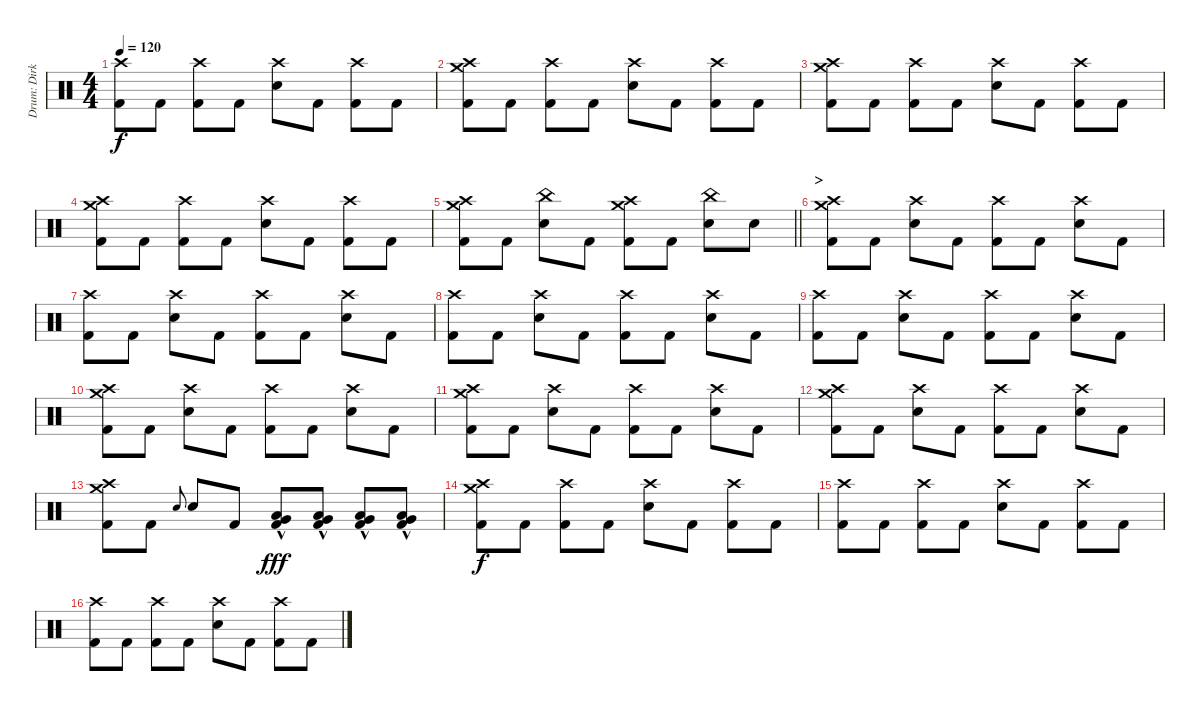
\track ("Drum: Dirk" "Drum: Dirk") {instrument percussion}
\staff {score}
\articulation defaults
\ts (4 4)
\tempo 120
\clef neutral
\ks c
("Crash high (hit)" "Kick (hit) 2").8{dy f} "Kick (hit) 2".8 ("Crash high (hit)" "Kick (hit) 2").8 "Kick (hit) 2".8 ("Crash high (hit)" "Electric Snare (hit)").8 "Kick (hit) 2".8 ("Crash high (hit)" "Kick (hit) 2").8 "Kick (hit) 2".8 |
("Crash high (hit)" "Crash medium (hit)" "Kick (hit) 2").8 "Kick (hit) 2".8 ("Crash high (hit)" "Kick (hit) 2").8 "Kick (hit) 2".8 ("Crash high (hit)" "Electric Snare (hit)").8 "Kick (hit) 2".8 ("Crash high (hit)" "Kick (hit) 2").8 "Kick (hit) 2".8 |
("Crash high (hit)" "Crash medium (hit)" "Kick (hit) 2").8 "Kick (hit) 2".8 ("Crash high (hit)" "Kick (hit) 2").8 "Kick (hit) 2".8 ("Crash high (hit)" "Electric Snare (hit)").8 "Kick (hit) 2".8 ("Crash high (hit)" "Kick (hit) 2").8 "Kick (hit) 2".8 |
("Crash high (hit)" "Crash medium (hit)" "Kick (hit) 2").8 "Kick (hit) 2".8 ("Crash high (hit)" "Kick (hit) 2").8 "Kick (hit) 2".8 ("Crash high (hit)" "Electric Snare (hit)").8 "Kick (hit) 2".8 ("Crash high (hit)" "Kick (hit) 2").8 "Kick (hit) 2".8 |
\barLineRight lightlight
("Crash high (hit)" "Crash medium (hit)" "Kick (hit) 2").8 "Kick (hit) 2".8 ("China (hit)" "Electric Snare (hit)").8 "Kick (hit) 2".8 ("Crash high (hit)" "Crash medium (hit)" "Kick (hit) 2").8 "Kick (hit) 2".8 ("China (hit)" "Electric Snare (hit)").8 "Electric Snare (hit)".8 |
\section ("" ">")
("Crash high (hit)" "Crash medium (hit)" "Kick (hit) 2").8 "Kick (hit) 2".8 ("Crash high (hit)" "Electric Snare (hit)").8 "Kick (hit) 2".8 ("Crash high (hit)" "Kick (hit) 2").8 "Kick (hit) 2".8 ("Crash high (hit)" "Electric Snare (hit)").8 "Kick (hit) 2".8 |
("Crash high (hit)" "Kick (hit) 2").8 "Kick (hit) 2".8 ("Crash high (hit)" "Electric Snare (hit)").8 "Kick (hit) 2".8 ("Crash high (hit)" "Kick (hit) 2").8 "Kick (hit) 2".8 ("Crash high (hit)" "Electric Snare (hit)").8 "Kick (hit) 2".8 |
("Crash high (hit)" "Kick (hit) 2").8 "Kick (hit) 2".8 ("Crash high (hit)" "Electric Snare (hit)").8 "Kick (hit) 2".8 ("Crash high (hit)" "Kick (hit) 2").8 "Kick (hit) 2".8 ("Crash high (hit)" "Electric Snare (hit)").8 "Kick (hit) 2".8 |
("Crash high (hit)" "Kick (hit) 2").8 "Kick (hit) 2".8 ("Crash high (hit)" "Electric Snare (hit)").8 "Kick (hit) 2".8 ("Crash high (hit)" "Kick (hit) 2").8 "Kick (hit) 2".8 ("Crash high (hit)" "Electric Snare (hit)").8 "Kick (hit) 2".8 |
("Crash high (hit)" "Crash medium (hit)" "Kick (hit) 2").8 "Kick (hit) 2".8 ("Crash high (hit)" "Electric Snare (hit)").8 "Kick (hit) 2".8 ("Crash high (hit)" "Kick (hit) 2").8 "Kick (hit) 2".8 ("Crash high (hit)" "Electric Snare (hit)").8 "Kick (hit) 2".8 |
("Crash high (hit)" "Crash medium (hit)" "Kick (hit) 2").8 "Kick (hit) 2".8 ("Crash high (hit)" "Electric Snare (hit)").8 "Kick (hit) 2".8 ("Crash high (hit)" "Kick (hit) 2").8 "Kick (hit) 2".8 ("Crash high (hit)" "Electric Snare (hit)").8 "Kick (hit) 2".8 |
("Crash high (hit)" "Crash medium (hit)" "Kick (hit) 2").8 "Kick (hit) 2".8 ("Crash high (hit)" "Electric Snare (hit)").8 "Kick (hit) 2".8 ("Crash high (hit)" "Kick (hit) 2").8 "Kick (hit) 2".8 ("Crash high (hit)" "Electric Snare (hit)").8 "Kick (hit) 2".8 |
("Crash high (hit)" "Crash medium (hit)" "Kick (hit) 2").8 "Kick (hit) 2".8 "Electric Snare (hit)".8{gr onbeat} "Electric Snare (hit)".8 "Kick (hit) 2".8 ("Low Tom (hit)"{hac} "Very Low Tom (hit)"{hac} "Kick (hit) 2").8{dy fff} ("Low Tom (hit)"{hac} "Very Low Tom (hit)"{hac} "Kick (hit) 2").8 ("Very Low Tom (hit)"{hac} "Low Floor Tom (hit)"{hac} "Kick (hit) 2").8 ("Very Low Tom (hit)"{hac} "Low Floor Tom (hit)"{hac} "Kick (hit) 2").8 |
("Crash high (hit)" "Crash medium (hit)" "Kick (hit) 2").8{dy f} "Kick (hit) 2".8 ("Crash high (hit)" "Kick (hit) 2").8 "Kick (hit) 2".8 ("Crash high (hit)" "Electric Snare (hit)").8 "Kick (hit) 2".8 ("Crash high (hit)" "Kick (hit) 2").8 "Kick (hit) 2".8 |
("Crash high (hit)" "Kick (hit) 2").8 "Kick (hit) 2".8 ("Crash high (hit)" "Kick (hit) 2").8 "Kick (hit) 2".8 ("Crash high (hit)" "Electric Snare (hit)").8 "Kick (hit) 2".8 ("Crash high (hit)" "Kick (hit) 2").8 "Kick (hit) 2".8 |
("Crash high (hit)" "Kick (hit) 2").8 "Kick (hit) 2".8 ("Crash high (hit)" "Kick (hit) 2").8 "Kick (hit) 2".8 ("Crash high (hit)" "Electric Snare (hit)").8 "Kick (hit) 2".8 ("Crash high (hit)" "Kick (hit) 2").8 "Kick (hit) 2".8
